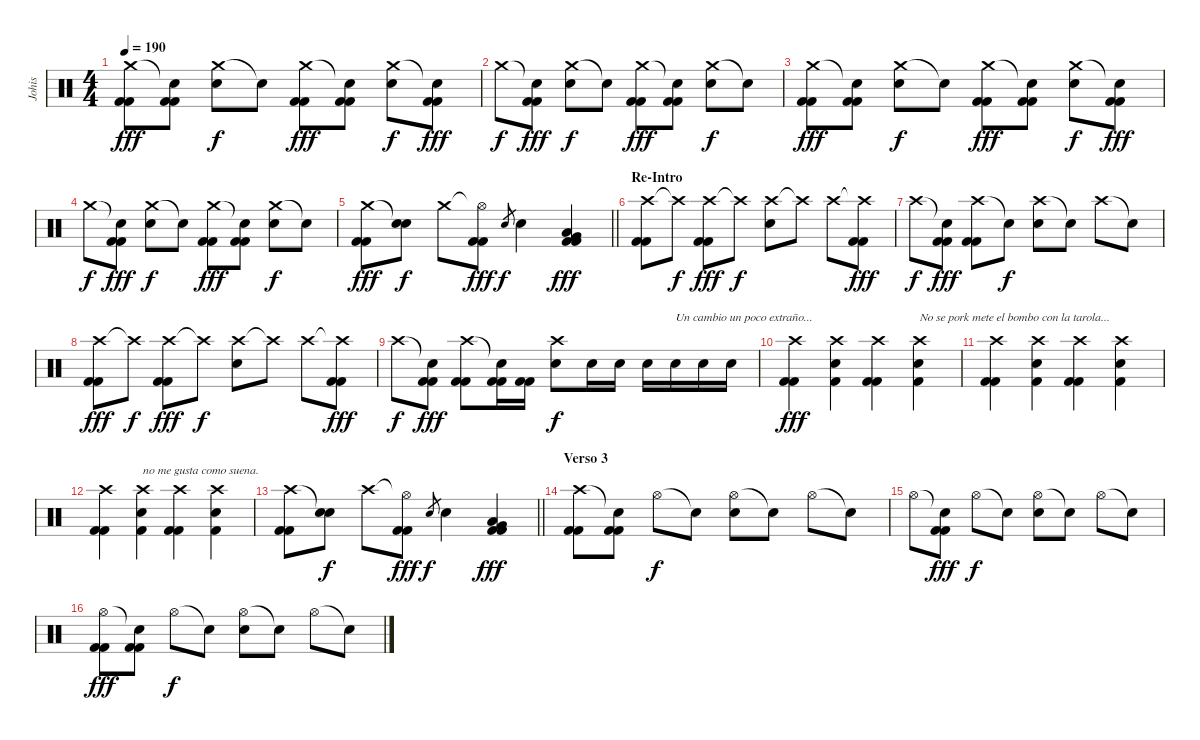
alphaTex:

\track ("Johis" "Johis") {instrument percussion}
\staff {score}
\articulation defaults
\ts (4 4)
\tempo 190
\clef neutral
\ks c
("Crash medium (hit)" "Kick (hit) 2" "Kick (hit) 2").8{dy fff} ("Snare (hit)"{t} "Kick (hit) 2" "Kick (hit) 2").8 ("Crash medium (hit)" "Electric Snare (hit)").8{dy f} "Snare (hit)"{t}.8 ("Crash medium (hit)" "Kick (hit) 2" "Kick (hit) 2").8{dy fff} ("Snare (hit)"{t} "Kick (hit) 2" "Kick (hit) 2").8 ("Crash medium (hit)" "Electric Snare (hit)").8{dy f} ("Snare (hit)"{t} "Kick (hit) 2" "Kick (hit) 2").8{dy fff} |
"Crash medium (hit)".8{dy f} ("Snare (hit)"{t} "Kick (hit) 2" "Kick (hit) 2").8{dy fff} ("Crash medium (hit)" "Electric Snare (hit)").8{dy f} "Snare (hit)"{t}.8 ("Crash medium (hit)" "Kick (hit) 2" "Kick (hit) 2").8{dy fff} ("Snare (hit)"{t} "Kick (hit) 2" "Kick (hit) 2").8 ("Crash medium (hit)" "Electric Snare (hit)").8{dy f} "Snare (hit)"{t}.8 |
("Crash medium (hit)" "Kick (hit) 2" "Kick (hit) 2").8{dy fff} ("Snare (hit)"{t} "Kick (hit) 2" "Kick (hit) 2").8 ("Crash medium (hit)" "Electric Snare (hit)").8{dy f} "Snare (hit)"{t}.8 ("Crash medium (hit)" "Kick (hit) 2" "Kick (hit) 2").8{dy fff} ("Snare (hit)"{t} "Kick (hit) 2" "Kick (hit) 2").8 ("Crash medium (hit)" "Electric Snare (hit)").8{dy f} ("Snare (hit)"{t} "Kick (hit) 2" "Kick (hit) 2").8{dy fff} |
"Crash medium (hit)".8{dy f} ("Snare (hit)"{t} "Kick (hit) 2" "Kick (hit) 2").8{dy fff} ("Crash medium (hit)" "Electric Snare (hit)").8{dy f} "Snare (hit)"{t}.8 ("Crash medium (hit)" "Kick (hit) 2" "Kick (hit) 2").8{dy fff} ("Snare (hit)"{t} "Kick (hit) 2" "Kick (hit) 2").8 ("Crash medium (hit)" "Electric Snare (hit)").8{dy f} "Snare (hit)"{t}.8 |
\barLineRight lightlight
("Crash medium (hit)" "Kick (hit) 2" "Kick (hit) 2").8{dy fff} ("Snare (hit)"{t} "Electric Snare (hit)").8{dy f} "Crash medium (hit)".8 ("Hi-Hat (open)"{t} "Kick (hit) 2" "Kick (hit) 2").8{dy fff} "Electric Snare (hit)".8{gr dy f} "Electric Snare (hit)".4 ("Low Tom (hit)" "Very Low Tom (hit)" "Kick (hit) 2" "Kick (hit) 2").4{bd 120 dy fff} |
\section ("" "Re-Intro")
("Crash high (hit)" "Kick (hit) 2" "Kick (hit) 2").8 "Crash high (hit)"{t}.8{dy f} ("Crash high (hit)" "Kick (hit) 2" "Kick (hit) 2").8{dy fff} "Crash high (hit)"{t}.8{dy f} ("Crash high (hit)" "Electric Snare (hit)").8 "Crash high (hit)"{t}.8 "Crash high (hit)".8 ("Crash high (hit)"{t} "Kick (hit) 2" "Kick (hit) 2").8{dy fff} |
"Crash high (hit)".8{dy f} ("Snare (hit)"{t} "Kick (hit) 2" "Kick (hit) 2").8{dy fff} ("Crash high (hit)" "Kick (hit) 2" "Kick (hit) 2").8 "Snare (hit)"{t}.8{dy f} ("Crash high (hit)" "Electric Snare (hit)").8 "Snare (hit)"{t}.8 "Crash high (hit)".8 "Snare (hit)"{t}.8 |
("Crash high (hit)" "Kick (hit) 2" "Kick (hit) 2").8{dy fff} "Crash high (hit)"{t}.8{dy f} ("Crash high (hit)" "Kick (hit) 2" "Kick (hit) 2").8{dy fff} "Crash high (hit)"{t}.8{dy f} ("Crash high (hit)" "Electric Snare (hit)").8 "Crash high (hit)"{t}.8 "Crash high (hit)".8 ("Crash high (hit)"{t} "Kick (hit) 2" "Kick (hit) 2").8{dy fff} |
"Crash high (hit)".8{dy f} ("Snare (hit)"{t} "Kick (hit) 2" "Kick (hit) 2").8{dy fff} ("Crash high (hit)" "Kick (hit) 2" "Kick (hit) 2").8 ("Snare (hit)"{t} "Kick (hit) 2" "Kick (hit) 2").16 ("Kick (hit) 2" "Kick (hit) 2").16 ("Crash high (hit)" "Electric Snare (hit)").8{dy f} "Electric Snare (hit)".16 "Electric Snare (hit)".16 "Electric Snare (hit)".16 "Electric Snare (hit)".16{txt "Un cambio un poco extraño..."} "Electric Snare (hit)".16 "Electric Snare (hit)".16 |
("Crash high (hit)" "Kick (hit) 2" "Kick (hit) 2").4{dy fff} ("Crash high (hit)" "Electric Snare (hit)" "Kick (hit) 2").4 ("Crash high (hit)" "Kick (hit) 2" "Kick (hit) 2").4 ("Crash high (hit)" "Electric Snare (hit)" "Kick (hit) 2").4{txt "No se pork mete el bombo con la tarola..."} |
("Crash high (hit)" "Kick (hit) 2" "Kick (hit) 2").4 ("Crash high (hit)" "Electric Snare (hit)" "Kick (hit) 2").4 ("Crash high (hit)" "Kick (hit) 2" "Kick (hit) 2").4 ("Crash high (hit)" "Electric Snare (hit)" "Kick (hit) 2").4 |
("Crash high (hit)" "Kick (hit) 2" "Kick (hit) 2").4 ("Crash high (hit)" "Electric Snare (hit)" "Kick (hit) 2").4{txt "no me gusta como suena."} ("Crash high (hit)" "Kick (hit) 2" "Kick (hit) 2").4 ("Crash high (hit)" "Electric Snare (hit)" "Kick (hit) 2").4 |
\barLineRight lightlight
("Crash high (hit)" "Kick (hit) 2" "Kick (hit) 2").8 ("Snare (hit)"{t} "Electric Snare (hit)").8{dy f} "Crash high (hit)".8 ("Hi-Hat (open)"{t} "Kick (hit) 2" "Kick (hit) 2").8{dy fff} "Electric Snare (hit)".8{gr dy f} "Electric Snare (hit)".4 ("Low Tom (hit)" "Very Low Tom (hit)" "Kick (hit) 2" "Kick (hit) 2").4{bd 120 dy fff} |
\section ("" "Verso 3")
("Crash high (hit)" "Kick (hit) 2" "Kick (hit) 2").8 ("Snare (hit)"{t} "Kick (hit) 2" "Kick (hit) 2").8 "Hi-Hat (open)".8{dy f} "Snare (hit)"{t}.8 ("Hi-Hat (open)" "Electric Snare (hit)").8 "Snare (hit)"{t}.8 "Hi-Hat (open)".8 "Snare (hit)"{t}.8 |
"Hi-Hat (open)".8 ("Snare (hit)"{t} "Kick (hit) 2" "Kick (hit) 2").8{dy fff} "Hi-Hat (open)".8{dy f} "Snare (hit)"{t}.8 ("Hi-Hat (open)" "Electric Snare (hit)").8 "Snare (hit)"{t}.8 "Hi-Hat (open)".8 "Snare (hit)"{t}.8 |
("Hi-Hat (open)" "Kick (hit) 2" "Kick (hit) 2").8{dy fff} ("Snare (hit)"{t} "Kick (hit) 2" "Kick (hit) 2").8 "Hi-Hat (open)".8{dy f} "Snare (hit)"{t}.8 ("Hi-Hat (open)" "Electric Snare (hit)").8 "Snare (hit)"{t}.8 "Hi-Hat (open)".8 "Snare (hit)"{t}.8
